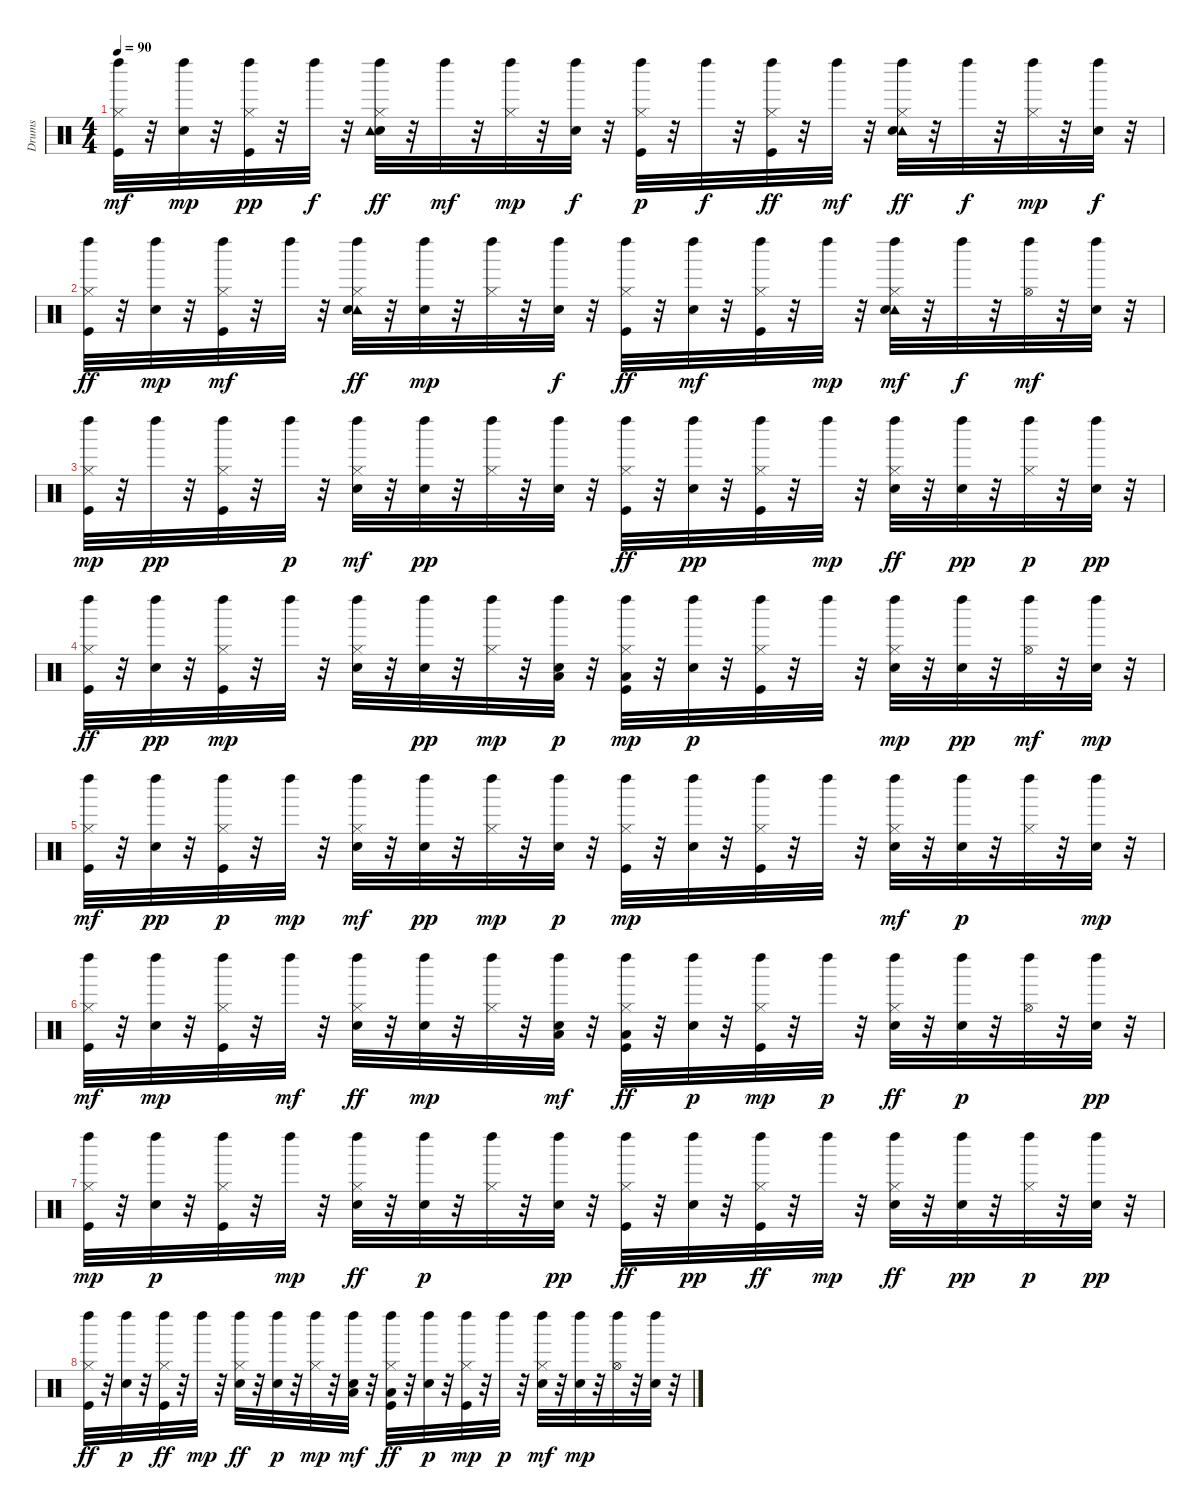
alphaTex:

\track ("Drums" "Drums") {instrument percussion}
\staff {score}
\articulation defaults
\ts (4 4)
\tempo 90
\clef neutral
\ks c
("Kick (hit)" "Left Maraca (hit)" "Hi-Hat (closed)").32{dy mf} r.32 ("Electric Snare (hit)" "Left Maraca (hit)").32{dy mp} r.32 ("Hi-Hat (closed)" "Kick (hit)" "Left Maraca (hit)").32{dy pp} r.32 "Left Maraca (hit)".32{dy f} r.32 ("Hi-Hat (closed)" "Electric Snare (hit)" "Tambourine (hit)" "Left Maraca (hit)").32{dy ff} r.32 "Left Maraca (hit)".32{dy mf} r.32 ("Hi-Hat (closed)" "Left Maraca (hit)").32{dy mp} r.32 ("Left Maraca (hit)" "Electric Snare (hit)").32{dy f} r.32 ("Kick (hit)" "Left Maraca (hit)" "Hi-Hat (closed)").32{dy p} r.32 "Left Maraca (hit)".32{dy f} r.32 ("Hi-Hat (closed)" "Left Maraca (hit)" "Kick (hit)").32{dy ff} r.32 "Left Maraca (hit)".32{dy mf} r.32 ("Tambourine (hit)" "Left Maraca (hit)" "Electric Snare (hit)" "Hi-Hat (closed)").32{dy ff} r.32 "Left Maraca (hit)".32{dy f} r.32 ("Left Maraca (hit)" "Hi-Hat (closed)").32{dy mp} r.32 ("Left Maraca (hit)" "Electric Snare (hit)").32{dy f} r.32 |
("Kick (hit)" "Hi-Hat (closed)" "Left Maraca (hit)").32{dy ff} r.32 ("Electric Snare (hit)" "Left Maraca (hit)").32{dy mp} r.32 ("Kick (hit)" "Left Maraca (hit)" "Hi-Hat (closed)").32{dy mf} r.32 "Left Maraca (hit)".32 r.32 ("Tambourine (hit)" "Hi-Hat (closed)" "Electric Snare (hit)" "Left Maraca (hit)").32{dy ff} r.32 ("Left Maraca (hit)" "Electric Snare (hit)").32{dy mp} r.32 ("Hi-Hat (closed)" "Left Maraca (hit)").32 r.32 ("Left Maraca (hit)" "Electric Snare (hit)").32{dy f} r.32 ("Left Maraca (hit)" "Hi-Hat (closed)" "Kick (hit)").32{dy ff} r.32 ("Left Maraca (hit)" "Electric Snare (hit)").32{dy mf} r.32 ("Left Maraca (hit)" "Hi-Hat (closed)" "Kick (hit)").32 r.32 "Left Maraca (hit)".32{dy mp} r.32 ("Tambourine (hit)" "Hi-Hat (closed)" "Electric Snare (hit)" "Left Maraca (hit)").32{dy mf} r.32 "Left Maraca (hit)".32{dy f} r.32 ("Hi-Hat (open)" "Left Maraca (hit)").32{dy mf} r.32 ("Electric Snare (hit)" "Left Maraca (hit)").32 r.32 |
("Hi-Hat (closed)" "Kick (hit)" "Left Maraca (hit)").32{dy mp} r.32 "Left Maraca (hit)".32{dy pp} r.32 ("Kick (hit)" "Hi-Hat (closed)" "Left Maraca (hit)").32 r.32 "Left Maraca (hit)".32{dy p} r.32 ("Left Maraca (hit)" "Hi-Hat (closed)" "Electric Snare (hit)").32{dy mf} r.32 ("Left Maraca (hit)" "Electric Snare (hit)").32{dy pp} r.32 ("Left Maraca (hit)" "Hi-Hat (closed)").32 r.32 ("Electric Snare (hit)" "Left Maraca (hit)").32 r.32 ("Left Maraca (hit)" "Hi-Hat (closed)" "Kick (hit)").32{dy ff} r.32 ("Electric Snare (hit)" "Left Maraca (hit)").32{dy pp} r.32 ("Hi-Hat (closed)" "Kick (hit)" "Left Maraca (hit)").32 r.32 "Left Maraca (hit)".32{dy mp} r.32 ("Electric Snare (hit)" "Left Maraca (hit)" "Hi-Hat (closed)").32{dy ff} r.32 ("Electric Snare (hit)" "Left Maraca (hit)").32{dy pp} r.32 ("Hi-Hat (closed)" "Left Maraca (hit)").32{dy p} r.32 ("Left Maraca (hit)" "Electric Snare (hit)").32{dy pp} r.32 |
("Left Maraca (hit)" "Kick (hit)" "Hi-Hat (closed)").32{dy ff} r.32 ("Left Maraca (hit)" "Electric Snare (hit)").32{dy pp} r.32 ("Kick (hit)" "Left Maraca (hit)" "Hi-Hat (closed)").32{dy mp} r.32 "Left Maraca (hit)".32 r.32 ("Hi-Hat (closed)" "Electric Snare (hit)" "Left Maraca (hit)").32 r.32 ("Electric Snare (hit)" "Left Maraca (hit)").32{dy pp} r.32 ("Hi-Hat (closed)" "Left Maraca (hit)").32{dy mp} r.32 ("Electric Snare (hit)" "Low Tom (hit)" "Left Maraca (hit)").32{dy p} r.32 ("Hi-Hat (closed)" "Kick (hit)" "Low Floor Tom (hit)" "Left Maraca (hit)").32{dy mp} r.32 ("Electric Snare (hit)" "Left Maraca (hit)").32{dy p} r.32 ("Kick (hit)" "Hi-Hat (closed)" "Left Maraca (hit)").32 r.32 "Left Maraca (hit)".32 r.32 ("Hi-Hat (closed)" "Electric Snare (hit)" "Left Maraca (hit)").32{dy mp} r.32 ("Electric Snare (hit)" "Left Maraca (hit)").32{dy pp} r.32 ("Left Maraca (hit)" "Hi-Hat (open)").32{dy mf} r.32 ("Electric Snare (hit)" "Left Maraca (hit)").32{dy mp} r.32 |
("Hi-Hat (closed)" "Kick (hit)" "Left Maraca (hit)").32{dy mf} r.32 ("Electric Snare (hit)" "Left Maraca (hit)").32{dy pp} r.32 ("Kick (hit)" "Hi-Hat (closed)" "Left Maraca (hit)").32{dy p} r.32 "Left Maraca (hit)".32{dy mp} r.32 ("Electric Snare (hit)" "Hi-Hat (closed)" "Left Maraca (hit)").32{dy mf} r.32 ("Electric Snare (hit)" "Left Maraca (hit)").32{dy pp} r.32 ("Hi-Hat (closed)" "Left Maraca (hit)").32{dy mp} r.32 ("Electric Snare (hit)" "Left Maraca (hit)").32{dy p} r.32 ("Hi-Hat (closed)" "Kick (hit)" "Left Maraca (hit)").32{dy mp} r.32 ("Electric Snare (hit)" "Left Maraca (hit)").32 r.32 ("Hi-Hat (closed)" "Kick (hit)" "Left Maraca (hit)").32 r.32 "Left Maraca (hit)".32 r.32 ("Hi-Hat (closed)" "Electric Snare (hit)" "Left Maraca (hit)").32{dy mf} r.32 ("Electric Snare (hit)" "Left Maraca (hit)").32{dy p} r.32 ("Hi-Hat (closed)" "Left Maraca (hit)").32 r.32 ("Electric Snare (hit)" "Left Maraca (hit)").32{dy mp} r.32 |
("Hi-Hat (closed)" "Kick (hit)" "Left Maraca (hit)").32{dy mf} r.32 ("Electric Snare (hit)" "Left Maraca (hit)").32{dy mp} r.32 ("Hi-Hat (closed)" "Kick (hit)" "Left Maraca (hit)").32 r.32 "Left Maraca (hit)".32{dy mf} r.32 ("Electric Snare (hit)" "Left Maraca (hit)" "Hi-Hat (closed)").32{dy ff} r.32 ("Electric Snare (hit)" "Left Maraca (hit)").32{dy mp} r.32 ("Left Maraca (hit)" "Hi-Hat (closed)").32 r.32 ("Electric Snare (hit)" "Left Maraca (hit)" "Low Tom (hit)").32{dy mf} r.32 ("Kick (hit)" "Low Floor Tom (hit)" "Left Maraca (hit)" "Hi-Hat (closed)").32{dy ff} r.32 ("Electric Snare (hit)" "Left Maraca (hit)").32{dy p} r.32 ("Kick (hit)" "Left Maraca (hit)" "Hi-Hat (closed)").32{dy mp} r.32 "Left Maraca (hit)".32{dy p} r.32 ("Electric Snare (hit)" "Left Maraca (hit)" "Hi-Hat (closed)").32{dy ff} r.32 ("Electric Snare (hit)" "Left Maraca (hit)").32{dy p} r.32 ("Hi-Hat (open)" "Left Maraca (hit)").32 r.32 ("Left Maraca (hit)" "Electric Snare (hit)").32{dy pp} r.32 |
("Kick (hit)" "Left Maraca (hit)" "Hi-Hat (closed)").32{dy mp} r.32 ("Electric Snare (hit)" "Left Maraca (hit)").32{dy p} r.32 ("Kick (hit)" "Hi-Hat (closed)" "Left Maraca (hit)").32 r.32 "Left Maraca (hit)".32{dy mp} r.32 ("Electric Snare (hit)" "Left Maraca (hit)" "Hi-Hat (closed)").32{dy ff} r.32 ("Electric Snare (hit)" "Left Maraca (hit)").32{dy p} r.32 ("Hi-Hat (closed)" "Left Maraca (hit)").32 r.32 ("Left Maraca (hit)" "Electric Snare (hit)").32{dy pp} r.32 ("Kick (hit)" "Left Maraca (hit)" "Hi-Hat (closed)").32{dy ff} r.32 ("Left Maraca (hit)" "Electric Snare (hit)").32{dy pp} r.32 ("Left Maraca (hit)" "Hi-Hat (closed)" "Kick (hit)").32{dy ff} r.32 "Left Maraca (hit)".32{dy mp} r.32 ("Left Maraca (hit)" "Hi-Hat (closed)" "Electric Snare (hit)").32{dy ff} r.32 ("Left Maraca (hit)" "Electric Snare (hit)").32{dy pp} r.32 ("Left Maraca (hit)" "Hi-Hat (closed)").32{dy p} r.32 ("Left Maraca (hit)" "Electric Snare (hit)").32{dy pp} r.32 |
("Left Maraca (hit)" "Hi-Hat (closed)" "Kick (hit)").32{dy ff} r.32 ("Electric Snare (hit)" "Left Maraca (hit)").32{dy p} r.32 ("Left Maraca (hit)" "Hi-Hat (closed)" "Kick (hit)").32{dy ff} r.32 "Left Maraca (hit)".32{dy mp} r.32 ("Electric Snare (hit)" "Left Maraca (hit)" "Hi-Hat (closed)").32{dy ff} r.32 ("Electric Snare (hit)" "Left Maraca (hit)").32{dy p} r.32 ("Hi-Hat (closed)" "Left Maraca (hit)").32{dy mp} r.32 ("Electric Snare (hit)" "Low Tom (hit)" "Left Maraca (hit)").32{dy mf} r.32 ("Kick (hit)" "Low Floor Tom (hit)" "Left Maraca (hit)" "Hi-Hat (closed)").32{dy ff} r.32 ("Electric Snare (hit)" "Left Maraca (hit)").32{dy p} r.32 ("Hi-Hat (closed)" "Kick (hit)" "Left Maraca (hit)").32{dy mp} r.32 "Left Maraca (hit)".32{dy p} r.32 ("Hi-Hat (closed)" "Electric Snare (hit)" "Left Maraca (hit)").32{dy mf} r.32 ("Electric Snare (hit)" "Left Maraca (hit)").32{dy mp} r.32 ("Hi-Hat (open)" "Left Maraca (hit)").32 r.32 ("Electric Snare (hit)" "Left Maraca (hit)").32 r.32
